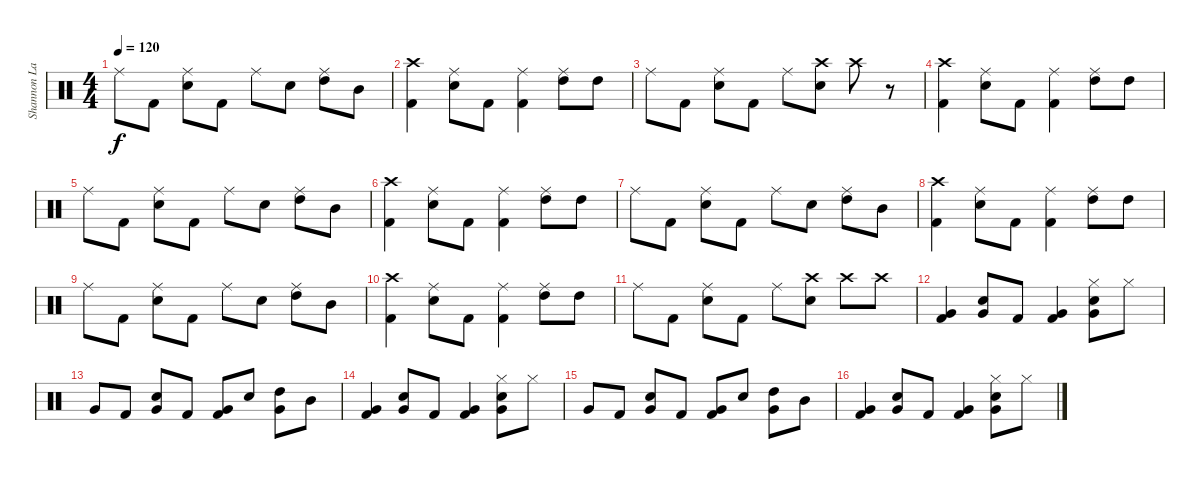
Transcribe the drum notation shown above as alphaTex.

\track ("Shannon Larkin [Drums]" "Shannon La") {instrument percussion}
\staff {score}
\articulation defaults
\ts (4 4)
\tempo 120
\clef neutral
\ks c "Ride (middle)".8{dy f} "Kick (hit) 2".8
("Ride (middle)" "Electric Snare (hit)").8 "Kick (hit) 2".8 "Ride (middle)".8 "Electric Snare (hit)".8 ("Ride (middle)" "High Tom (hit)").8 "Mid Tom (hit)".8 |
("Crash high (hit)" "Kick (hit) 2").4 ("Ride (middle)" "Electric Snare (hit)").8 "Kick (hit) 2".8 ("Ride (middle)" "Kick (hit) 2").4 ("Ride (middle)" "High Tom (hit)").8 "High Tom (hit)".8 |
"Ride (middle)".8 "Kick (hit) 2".8 ("Ride (middle)" "Electric Snare (hit)").8 "Kick (hit) 2".8 "Ride (middle)".8 ("Crash high (hit)" "Electric Snare (hit)").8 "Crash high (hit)".8 r.8 |
("Crash high (hit)" "Kick (hit) 2").4 ("Ride (middle)" "Electric Snare (hit)").8 "Kick (hit) 2".8 ("Ride (middle)" "Kick (hit) 2").4 ("Ride (middle)" "High Tom (hit)").8 "High Tom (hit)".8 |
"Ride (middle)".8 "Kick (hit) 2".8 ("Ride (middle)" "Electric Snare (hit)").8 "Kick (hit) 2".8 "Ride (middle)".8 "Electric Snare (hit)".8 ("Ride (middle)" "High Tom (hit)").8 "Mid Tom (hit)".8 |
("Crash high (hit)" "Kick (hit) 2").4 ("Ride (middle)" "Electric Snare (hit)").8 "Kick (hit) 2".8 ("Ride (middle)" "Kick (hit) 2").4 ("Ride (middle)" "High Tom (hit)").8 "High Tom (hit)".8 |
"Ride (middle)".8 "Kick (hit) 2".8 ("Ride (middle)" "Electric Snare (hit)").8 "Kick (hit) 2".8 "Ride (middle)".8 "Electric Snare (hit)".8 ("Ride (middle)" "High Tom (hit)").8 "Mid Tom (hit)".8 |
("Crash high (hit)" "Kick (hit) 2").4 ("Ride (middle)" "Electric Snare (hit)").8 "Kick (hit) 2".8 ("Ride (middle)" "Kick (hit) 2").4 ("Ride (middle)" "High Tom (hit)").8 "High Tom (hit)".8 |
"Ride (middle)".8 "Kick (hit) 2".8 ("Ride (middle)" "Electric Snare (hit)").8 "Kick (hit) 2".8 "Ride (middle)".8 "Electric Snare (hit)".8 ("Ride (middle)" "High Tom (hit)").8 "Mid Tom (hit)".8 |
("Crash high (hit)" "Kick (hit) 2").4 ("Ride (middle)" "Electric Snare (hit)").8 "Kick (hit) 2".8 ("Ride (middle)" "Kick (hit) 2").4 ("Ride (middle)" "High Tom (hit)").8 "High Tom (hit)".8 |
"Ride (middle)".8 "Kick (hit) 2".8 ("Ride (middle)" "Electric Snare (hit)").8 "Kick (hit) 2".8 "Ride (middle)".8 ("Crash high (hit)" "Electric Snare (hit)").8 "Crash high (hit)".8 "Crash high (hit)".8 |
("Very Low Tom (hit)" "Kick (hit) 2").4 ("Very Low Tom (hit)" "Electric Snare (hit)").8 "Kick (hit) 2".8 ("Very Low Tom (hit)" "Kick (hit) 2").4 ("Hi-Hat (closed)" "Very Low Tom (hit)" "Electric Snare (hit)").8 "Hi-Hat (closed)".8 |
"Very Low Tom (hit)".8 "Kick (hit) 2".8 ("Very Low Tom (hit)" "Electric Snare (hit)").8 "Kick (hit) 2".8 ("Very Low Tom (hit)" "Kick (hit) 2").8 "Electric Snare (hit)".8 ("Very Low Tom (hit)" "High Tom (hit)").8 "Mid Tom (hit)".8 |
("Very Low Tom (hit)" "Kick (hit) 2").4 ("Very Low Tom (hit)" "Electric Snare (hit)").8 "Kick (hit) 2".8 ("Very Low Tom (hit)" "Kick (hit) 2").4 ("Hi-Hat (closed)" "Very Low Tom (hit)" "Electric Snare (hit)").8 "Hi-Hat (closed)".8 |
"Very Low Tom (hit)".8 "Kick (hit) 2".8 ("Very Low Tom (hit)" "Electric Snare (hit)").8 "Kick (hit) 2".8 ("Very Low Tom (hit)" "Kick (hit) 2").8 "Electric Snare (hit)".8 ("Very Low Tom (hit)" "High Tom (hit)").8 "Mid Tom (hit)".8 |
("Very Low Tom (hit)" "Kick (hit) 2").4 ("Very Low Tom (hit)" "Electric Snare (hit)").8 "Kick (hit) 2".8 ("Very Low Tom (hit)" "Kick (hit) 2").4 ("Hi-Hat (closed)" "Very Low Tom (hit)" "Electric Snare (hit)").8 "Hi-Hat (closed)".8
